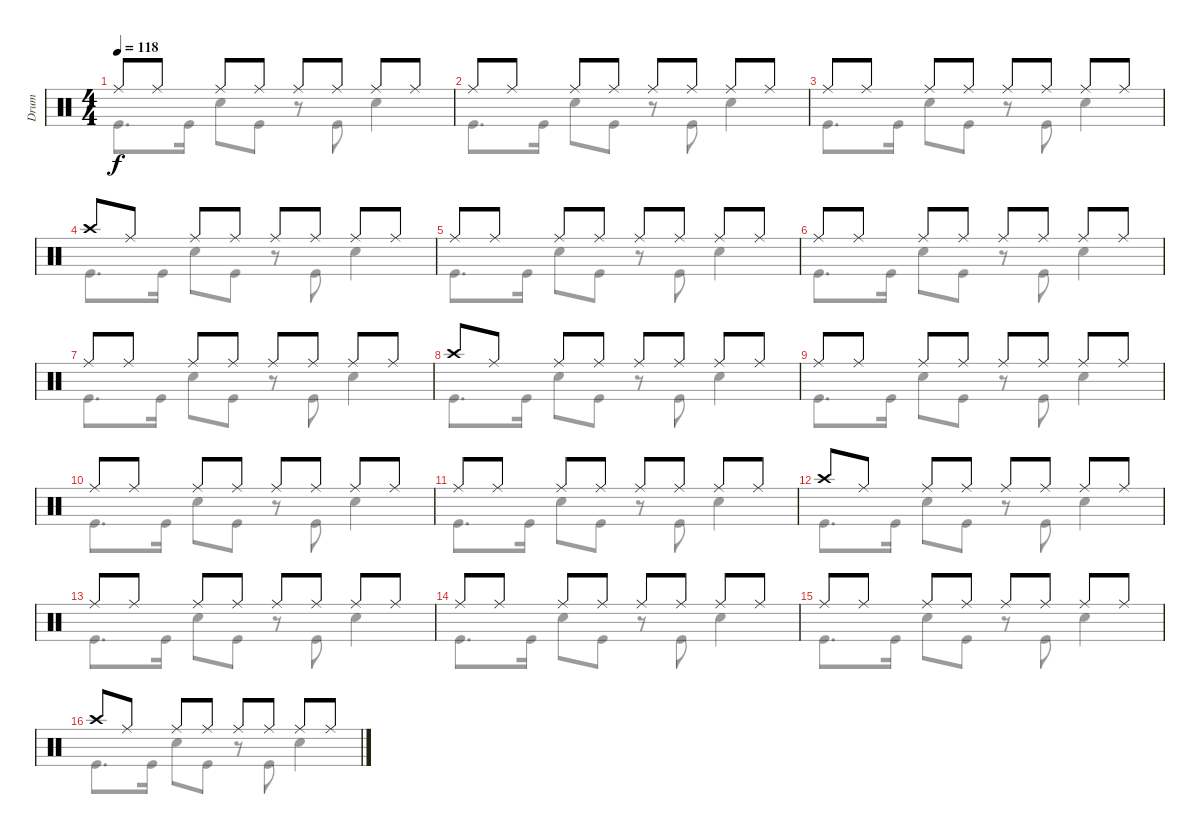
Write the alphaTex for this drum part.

\track ("Drum" "Drum") {instrument percussion}
\staff {score}
\articulation defaults
\voice
\ts (4 4)
\tempo 118
\clef neutral
\ks c "Ride (middle)".8{dy f} "Ride (middle)".8 "Ride (middle)".8 "Ride (middle)".8 "Ride (middle)".8 "Ride (middle)".8 "Ride (middle)".8 "Ride (middle)".8
|
"Ride (middle)".8 "Ride (middle)".8 "Ride (middle)".8 "Ride (middle)".8 "Ride (middle)".8 "Ride (middle)".8 "Ride (middle)".8 "Ride (middle)".8 |
"Ride (middle)".8 "Ride (middle)".8 "Ride (middle)".8 "Ride (middle)".8 "Ride (middle)".8 "Ride (middle)".8 "Ride (middle)".8 "Ride (middle)".8 |
"Crash high (hit)".8 "Ride (middle)".8 "Ride (middle)".8 "Ride (middle)".8 "Ride (middle)".8 "Ride (middle)".8 "Ride (middle)".8 "Ride (middle)".8 |
"Ride (middle)".8 "Ride (middle)".8 "Ride (middle)".8 "Ride (middle)".8 "Ride (middle)".8 "Ride (middle)".8 "Ride (middle)".8 "Ride (middle)".8 |
"Ride (middle)".8 "Ride (middle)".8 "Ride (middle)".8 "Ride (middle)".8 "Ride (middle)".8 "Ride (middle)".8 "Ride (middle)".8 "Ride (middle)".8 |
"Ride (middle)".8 "Ride (middle)".8 "Ride (middle)".8 "Ride (middle)".8 "Ride (middle)".8 "Ride (middle)".8 "Ride (middle)".8 "Ride (middle)".8 |
"Crash high (hit)".8 "Ride (middle)".8 "Ride (middle)".8 "Ride (middle)".8 "Ride (middle)".8 "Ride (middle)".8 "Ride (middle)".8 "Ride (middle)".8 |
"Ride (middle)".8 "Ride (middle)".8 "Ride (middle)".8 "Ride (middle)".8 "Ride (middle)".8 "Ride (middle)".8 "Ride (middle)".8 "Ride (middle)".8 |
"Ride (middle)".8 "Ride (middle)".8 "Ride (middle)".8 "Ride (middle)".8 "Ride (middle)".8 "Ride (middle)".8 "Ride (middle)".8 "Ride (middle)".8 |
"Ride (middle)".8 "Ride (middle)".8 "Ride (middle)".8 "Ride (middle)".8 "Ride (middle)".8 "Ride (middle)".8 "Ride (middle)".8 "Ride (middle)".8 |
"Crash high (hit)".8 "Ride (middle)".8 "Ride (middle)".8 "Ride (middle)".8 "Ride (middle)".8 "Ride (middle)".8 "Ride (middle)".8 "Ride (middle)".8 |
"Ride (middle)".8 "Ride (middle)".8 "Ride (middle)".8 "Ride (middle)".8 "Ride (middle)".8 "Ride (middle)".8 "Ride (middle)".8 "Ride (middle)".8 |
"Ride (middle)".8 "Ride (middle)".8 "Ride (middle)".8 "Ride (middle)".8 "Ride (middle)".8 "Ride (middle)".8 "Ride (middle)".8 "Ride (middle)".8 |
"Ride (middle)".8 "Ride (middle)".8 "Ride (middle)".8 "Ride (middle)".8 "Ride (middle)".8 "Ride (middle)".8 "Ride (middle)".8 "Ride (middle)".8 |
"Crash high (hit)".8 "Ride (middle)".8 "Ride (middle)".8 "Ride (middle)".8 "Ride (middle)".8 "Ride (middle)".8 "Ride (middle)".8 "Ride (middle)".8
\voice
\clef neutral
\ottava regular
\simile none
\ks c "Kick (hit)".8{d dy f} "Kick (hit)".16 "Snare (hit) 2".8 "Kick (hit)".8
r.8 "Kick (hit)".8 "Snare (hit) 2".4 |
"Kick (hit)".8{d} "Kick (hit)".16 "Snare (hit) 2".8 "Kick (hit)".8 r.8 "Kick (hit)".8 "Snare (hit) 2".4 |
"Kick (hit)".8{d} "Kick (hit)".16 "Snare (hit) 2".8 "Kick (hit)".8 r.8 "Kick (hit)".8 "Snare (hit) 2".4 |
"Kick (hit)".8{d} "Kick (hit)".16 "Snare (hit) 2".8 "Kick (hit)".8 r.8 "Kick (hit)".8 "Snare (hit) 2".4 |
"Kick (hit)".8{d} "Kick (hit)".16 "Snare (hit) 2".8 "Kick (hit)".8 r.8 "Kick (hit)".8 "Snare (hit) 2".4 |
"Kick (hit)".8{d} "Kick (hit)".16 "Snare (hit) 2".8 "Kick (hit)".8 r.8 "Kick (hit)".8 "Snare (hit) 2".4 |
"Kick (hit)".8{d} "Kick (hit)".16 "Snare (hit) 2".8 "Kick (hit)".8 r.8 "Kick (hit)".8 "Snare (hit) 2".4 |
"Kick (hit)".8{d} "Kick (hit)".16 "Snare (hit) 2".8 "Kick (hit)".8 r.8 "Kick (hit)".8 "Snare (hit) 2".4 |
"Kick (hit)".8{d} "Kick (hit)".16 "Snare (hit) 2".8 "Kick (hit)".8 r.8 "Kick (hit)".8 "Snare (hit) 2".4 |
"Kick (hit)".8{d} "Kick (hit)".16 "Snare (hit) 2".8 "Kick (hit)".8 r.8 "Kick (hit)".8 "Snare (hit) 2".4 |
"Kick (hit)".8{d} "Kick (hit)".16 "Snare (hit) 2".8 "Kick (hit)".8 r.8 "Kick (hit)".8 "Snare (hit) 2".4 |
"Kick (hit)".8{d} "Kick (hit)".16 "Snare (hit) 2".8 "Kick (hit)".8 r.8 "Kick (hit)".8 "Snare (hit) 2".4 |
"Kick (hit)".8{d} "Kick (hit)".16 "Snare (hit) 2".8 "Kick (hit)".8 r.8 "Kick (hit)".8 "Snare (hit) 2".4 |
"Kick (hit)".8{d} "Kick (hit)".16 "Snare (hit) 2".8 "Kick (hit)".8 r.8 "Kick (hit)".8 "Snare (hit) 2".4 |
"Kick (hit)".8{d} "Kick (hit)".16 "Snare (hit) 2".8 "Kick (hit)".8 r.8 "Kick (hit)".8 "Snare (hit) 2".4 |
"Kick (hit)".8{d} "Kick (hit)".16 "Snare (hit) 2".8 "Kick (hit)".8 r.8 "Kick (hit)".8 "Snare (hit) 2".4
